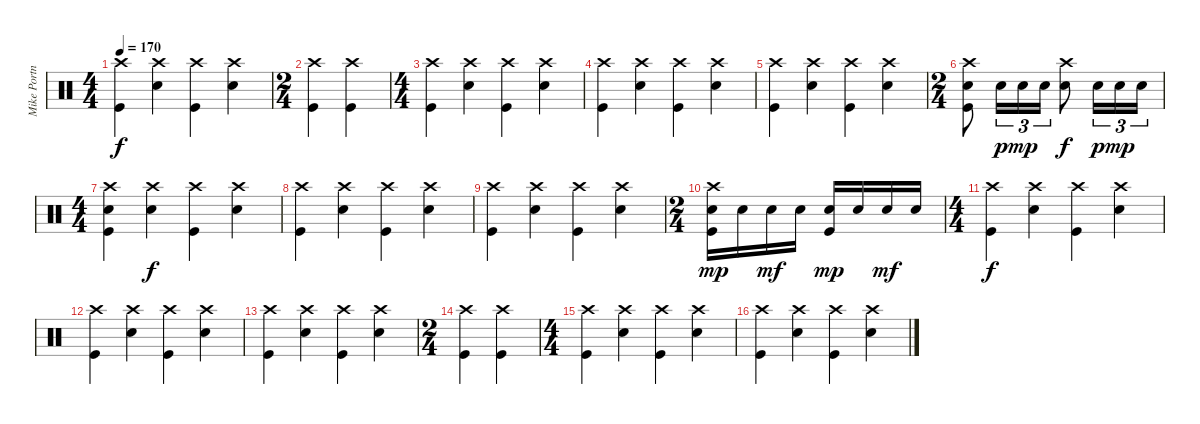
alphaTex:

\track ("Mike Portnoy" "Mike Portn") {instrument percussion}
\staff {score}
\articulation defaults
\ts (4 4)
\tempo 170
\clef neutral
\ks c
("Crash high (hit)" "Kick (hit)").4{dy f} ("Crash high (hit)" "Electric Snare (hit)").4 ("Crash high (hit)" "Kick (hit)").4 ("Crash high (hit)" "Electric Snare (hit)").4 |
\ts (2 4)
("Crash high (hit)" "Kick (hit)").4 ("Crash high (hit)" "Kick (hit)").4 |
\ts (4 4)
("Crash high (hit)" "Kick (hit)").4 ("Crash high (hit)" "Electric Snare (hit)").4 ("Crash high (hit)" "Kick (hit)").4 ("Crash high (hit)" "Electric Snare (hit)").4 |
("Crash high (hit)" "Kick (hit)").4 ("Crash high (hit)" "Electric Snare (hit)").4 ("Crash high (hit)" "Kick (hit)").4 ("Crash high (hit)" "Electric Snare (hit)").4 |
("Crash high (hit)" "Kick (hit)").4 ("Crash high (hit)" "Electric Snare (hit)").4 ("Crash high (hit)" "Kick (hit)").4 ("Crash high (hit)" "Electric Snare (hit)").4 |
\ts (2 4)
("Crash high (hit)" "Kick (hit)" "Electric Snare (hit)").8 "Electric Snare (hit)".16{tu (3 2) dy p} "Electric Snare (hit)".16{tu (3 2) dy mp} "Electric Snare (hit)".16{tu (3 2)} ("Crash high (hit)" "Electric Snare (hit)").8{dy f} "Electric Snare (hit)".16{tu (3 2) dy p} "Electric Snare (hit)".16{tu (3 2) dy mp} "Electric Snare (hit)".16{tu (3 2)} |
\ts (4 4)
("Crash high (hit)" "Kick (hit)" "Electric Snare (hit)").4 ("Crash high (hit)" "Electric Snare (hit)").4{dy f} ("Crash high (hit)" "Kick (hit)").4 ("Crash high (hit)" "Electric Snare (hit)").4 |
("Crash high (hit)" "Kick (hit)").4 ("Crash high (hit)" "Electric Snare (hit)").4 ("Crash high (hit)" "Kick (hit)").4 ("Crash high (hit)" "Electric Snare (hit)").4 |
("Crash high (hit)" "Kick (hit)").4 ("Crash high (hit)" "Electric Snare (hit)").4 ("Crash high (hit)" "Kick (hit)").4 ("Crash high (hit)" "Electric Snare (hit)").4 |
\ts (2 4)
("Crash high (hit)" "Kick (hit)" "Electric Snare (hit)").16{dy mp} "Electric Snare (hit)".16 "Electric Snare (hit)".16{dy mf} "Electric Snare (hit)".16 ("Kick (hit)" "Electric Snare (hit)").16{dy mp} "Electric Snare (hit)".16 "Electric Snare (hit)".16{dy mf} "Electric Snare (hit)".16 |
\ts (4 4)
("Crash high (hit)" "Kick (hit)").4{dy f} ("Crash high (hit)" "Electric Snare (hit)").4 ("Crash high (hit)" "Kick (hit)").4 ("Crash high (hit)" "Electric Snare (hit)").4 |
("Crash high (hit)" "Kick (hit)").4 ("Crash high (hit)" "Electric Snare (hit)").4 ("Crash high (hit)" "Kick (hit)").4 ("Crash high (hit)" "Electric Snare (hit)").4 |
("Crash high (hit)" "Kick (hit)").4 ("Crash high (hit)" "Electric Snare (hit)").4 ("Crash high (hit)" "Kick (hit)").4 ("Crash high (hit)" "Electric Snare (hit)").4 |
\ts (2 4)
("Crash high (hit)" "Kick (hit)").4 ("Crash high (hit)" "Kick (hit)").4 |
\ts (4 4)
("Crash high (hit)" "Kick (hit)").4 ("Crash high (hit)" "Electric Snare (hit)").4 ("Crash high (hit)" "Kick (hit)").4 ("Crash high (hit)" "Electric Snare (hit)").4 |
("Crash high (hit)" "Kick (hit)").4 ("Crash high (hit)" "Electric Snare (hit)").4 ("Crash high (hit)" "Kick (hit)").4 ("Crash high (hit)" "Electric Snare (hit)").4
